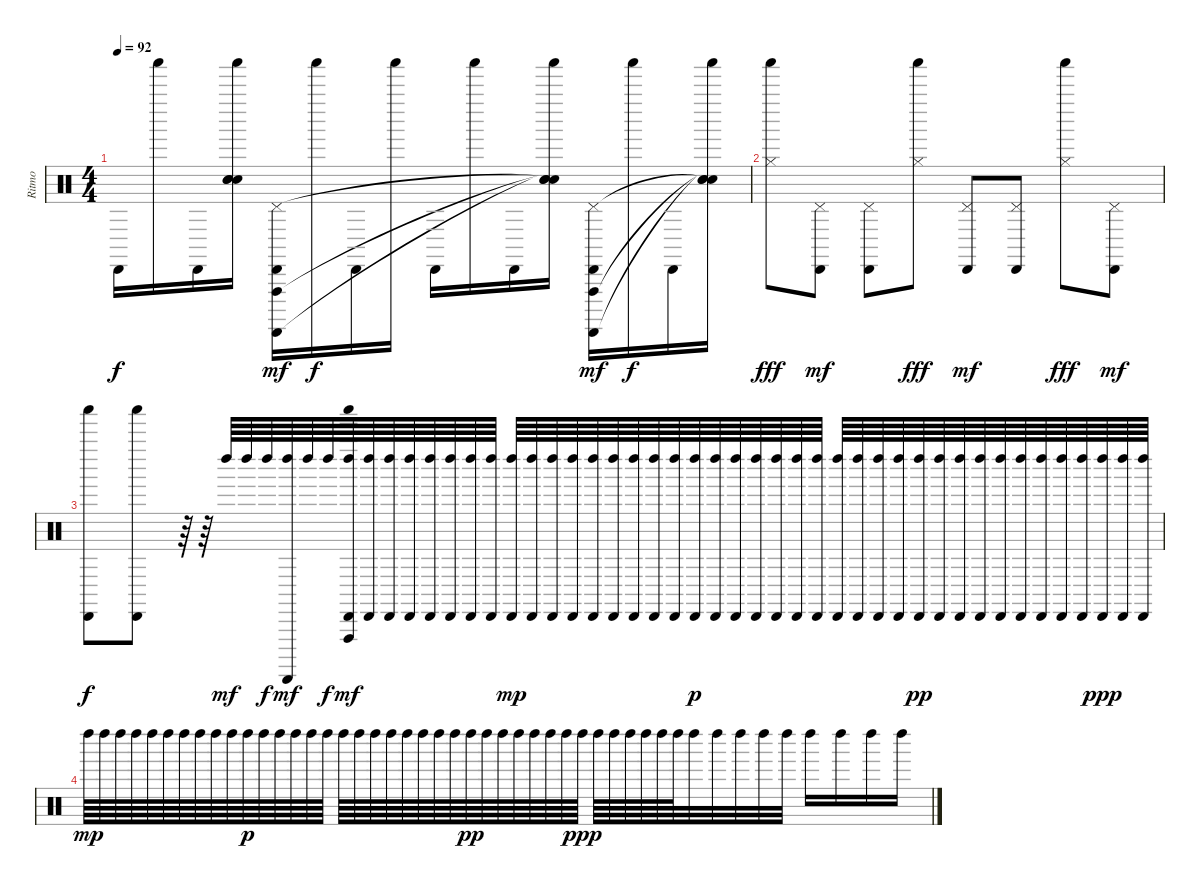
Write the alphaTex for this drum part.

\track ("Ritmo" "Ritmo") {instrument percussion}
\staff {score}
\articulation defaults
\ts (4 4)
\tempo 92
\clef neutral
\ks c "Cabasa (hit)".16{dy f} "Shaker (hit)".16 "Cabasa (hit)".16
("Shaker (hit)" "Snare (hit)"{t} "Snare (hit)"{t} "Snare (hit)"{t}).16 ("Cabasa (hit)" "Vibraslap (hit)" "Guiro (scrap-return)" "Pedal Hi-Hat (hit)").16{dy mf} "Shaker (hit)".16{dy f} "Cabasa (hit)".16 "Shaker (hit)".16 "Cabasa (hit)".16 "Shaker (hit)".16 "Cabasa (hit)".16 ("Shaker (hit)" "Snare (hit)"{t} "Snare (hit)"{t} "Snare (hit)"{t}).16 ("Cabasa (hit)" "Vibraslap (hit)" "Guiro (scrap-return)" "Pedal Hi-Hat (hit)").16{dy mf} "Shaker (hit)".16{dy f} "Cabasa (hit)".16 ("Shaker (hit)" "Snare (hit)"{t} "Snare (hit)"{t} "Snare (hit)"{t}).16 |
("Shaker (hit)" "Hi-Hat (closed)").8{dy fff} ("Cabasa (hit)" "Pedal Hi-Hat (hit)").8{dy mf} ("Cabasa (hit)" "Pedal Hi-Hat (hit)").8 ("Shaker (hit)" "Hi-Hat (closed)").8{dy fff} ("Cabasa (hit)" "Pedal Hi-Hat (hit)").8{dy mf} ("Cabasa (hit)" "Pedal Hi-Hat (hit)").8 ("Shaker (hit)" "Hi-Hat (closed)").8{dy fff} ("Cabasa (hit)" "Pedal Hi-Hat (hit)").8{dy mf} |
("Shaker (hit)" "Cabasa (hit)").8{dy f} ("Shaker (hit)" "Cabasa (hit)").8 r.64 r.64 "Left Maraca (hit)".64{dy mf} "Left Maraca (hit)".64 "Left Maraca (hit)".64{dy f} ("Guiro (scrap-return)" "Left Maraca (hit)").64{dy mf} "Left Maraca (hit)".64 "Left Maraca (hit)".64{dy f} ("Left Maraca (hit)" "Vibraslap (hit)" "Cabasa (hit)" "Shaker (hit)").64{dy mf} ("Left Maraca (hit)" "Cabasa (hit)").64 ("Left Maraca (hit)" "Cabasa (hit)").64 ("Left Maraca (hit)" "Cabasa (hit)").64 ("Left Maraca (hit)" "Cabasa (hit)").64 ("Left Maraca (hit)" "Cabasa (hit)").64 ("Left Maraca (hit)" "Cabasa (hit)").64 ("Left Maraca (hit)" "Cabasa (hit)").64 ("Left Maraca (hit)" "Cabasa (hit)").64{dy mp} ("Left Maraca (hit)" "Cabasa (hit)").64 ("Left Maraca (hit)" "Cabasa (hit)").64 ("Left Maraca (hit)" "Cabasa (hit)").64 ("Left Maraca (hit)" "Cabasa (hit)").64 ("Left Maraca (hit)" "Cabasa (hit)").64 ("Left Maraca (hit)" "Cabasa (hit)").64 ("Left Maraca (hit)" "Cabasa (hit)").64 ("Left Maraca (hit)" "Cabasa (hit)").64 ("Left Maraca (hit)" "Cabasa (hit)").64{dy p} ("Left Maraca (hit)" "Cabasa (hit)").64 ("Left Maraca (hit)" "Cabasa (hit)").64 ("Left Maraca (hit)" "Cabasa (hit)").64 ("Left Maraca (hit)" "Cabasa (hit)").64 ("Left Maraca (hit)" "Cabasa (hit)").64 ("Left Maraca (hit)" "Cabasa (hit)").64 ("Left Maraca (hit)" "Cabasa (hit)").64 ("Left Maraca (hit)" "Cabasa (hit)").64 ("Left Maraca (hit)" "Cabasa (hit)").64 ("Left Maraca (hit)" "Cabasa (hit)").64 ("Left Maraca (hit)" "Cabasa (hit)").64{dy pp} ("Left Maraca (hit)" "Cabasa (hit)").64 ("Left Maraca (hit)" "Cabasa (hit)").64 ("Left Maraca (hit)" "Cabasa (hit)").64 ("Left Maraca (hit)" "Cabasa (hit)").64 ("Left Maraca (hit)" "Cabasa (hit)").64 ("Left Maraca (hit)" "Cabasa (hit)").64 ("Left Maraca (hit)" "Cabasa (hit)").64 ("Left Maraca (hit)" "Cabasa (hit)").64 ("Left Maraca (hit)" "Cabasa (hit)").64{dy ppp} ("Left Maraca (hit)" "Cabasa (hit)").64 ("Left Maraca (hit)" "Cabasa (hit)").64 |
"Left Maraca (hit)".64{dy mp} "Left Maraca (hit)".64 "Left Maraca (hit)".64 "Left Maraca (hit)".64 "Left Maraca (hit)".64 "Left Maraca (hit)".64 "Left Maraca (hit)".64 "Left Maraca (hit)".64 "Left Maraca (hit)".64 "Left Maraca (hit)".64 "Left Maraca (hit)".64{dy p} "Left Maraca (hit)".64 "Left Maraca (hit)".64 "Left Maraca (hit)".64 "Left Maraca (hit)".64 "Left Maraca (hit)".64 "Left Maraca (hit)".64 "Left Maraca (hit)".64 "Left Maraca (hit)".64 "Left Maraca (hit)".64 "Left Maraca (hit)".64 "Left Maraca (hit)".64 "Left Maraca (hit)".64 "Left Maraca (hit)".64 "Left Maraca (hit)".64{dy pp} "Left Maraca (hit)".64 "Left Maraca (hit)".64 "Left Maraca (hit)".64 "Left Maraca (hit)".64 "Left Maraca (hit)".64 "Left Maraca (hit)".64 "Left Maraca (hit)".64{dy ppp} "Left Maraca (hit)".64 "Left Maraca (hit)".64 "Left Maraca (hit)".64 "Left Maraca (hit)".64 "Left Maraca (hit)".64 "Left Maraca (hit)".64 "Left Maraca (hit)".32 "Left Maraca (hit)".32 "Left Maraca (hit)".32 "Left Maraca (hit)".32 "Left Maraca (hit)".32 "Left Maraca (hit)".16 "Left Maraca (hit)".16 "Left Maraca (hit)".16 "Left Maraca (hit)".16
